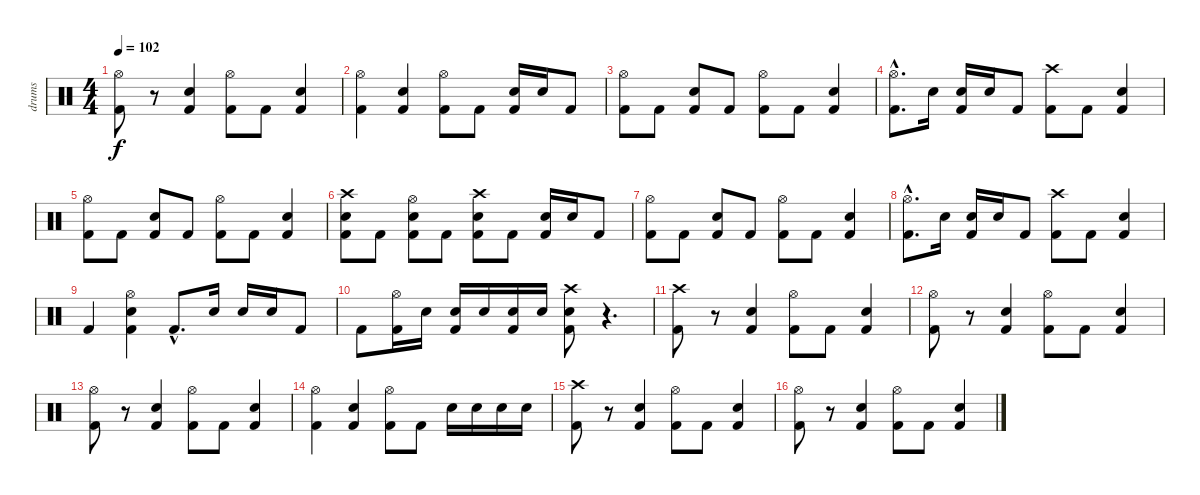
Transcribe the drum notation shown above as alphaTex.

\track ("drums" "drums") {instrument percussion}
\staff {score}
\articulation defaults
\ts (4 4)
\tempo 102
\clef neutral
\ks c
("Hi-Hat (open)" "Kick (hit) 2").8{dy f} r.8 ("Electric Snare (hit)" "Kick (hit) 2").4 ("Hi-Hat (open)" "Kick (hit) 2").8 "Kick (hit) 2".8 ("Electric Snare (hit)" "Kick (hit) 2").4 |
("Hi-Hat (open)" "Kick (hit) 2").4 ("Electric Snare (hit)" "Kick (hit) 2").4 ("Hi-Hat (open)" "Kick (hit) 2").8 "Kick (hit) 2".8 ("Electric Snare (hit)" "Kick (hit) 2").16 "Electric Snare (hit)".16 "Kick (hit) 2".8 |
("Hi-Hat (open)" "Kick (hit) 2").8 "Kick (hit) 2".8 ("Electric Snare (hit)" "Kick (hit) 2").8 "Kick (hit) 2".8 ("Hi-Hat (open)" "Kick (hit) 2").8 "Kick (hit) 2".8 ("Electric Snare (hit)" "Kick (hit) 2").4 |
("Hi-Hat (open)"{hac} "Kick (hit) 2"{hac}).8{d} "Electric Snare (hit)".16 ("Electric Snare (hit)" "Kick (hit) 2").16 "Electric Snare (hit)".16 "Kick (hit) 2".8 ("Crash high (hit)" "Kick (hit) 2").8 "Kick (hit) 2".8 ("Electric Snare (hit)" "Kick (hit) 2").4 |
("Hi-Hat (open)" "Kick (hit) 2").8 "Kick (hit) 2".8 ("Electric Snare (hit)" "Kick (hit) 2").8 "Kick (hit) 2".8 ("Hi-Hat (open)" "Kick (hit) 2").8 "Kick (hit) 2".8 ("Electric Snare (hit)" "Kick (hit) 2").4 |
("Crash high (hit)" "Electric Snare (hit)" "Kick (hit) 2").8 "Kick (hit) 2".8 ("Hi-Hat (open)" "Electric Snare (hit)" "Kick (hit) 2").8 "Kick (hit) 2".8 ("Crash high (hit)" "Electric Snare (hit)" "Kick (hit) 2").8 "Kick (hit) 2".8 ("Electric Snare (hit)" "Kick (hit) 2").16 "Electric Snare (hit)".16 "Kick (hit) 2".8 |
("Hi-Hat (open)" "Kick (hit) 2").8 "Kick (hit) 2".8 ("Electric Snare (hit)" "Kick (hit) 2").8 "Kick (hit) 2".8 ("Hi-Hat (open)" "Kick (hit) 2").8 "Kick (hit) 2".8 ("Electric Snare (hit)" "Kick (hit) 2").4 |
("Hi-Hat (open)"{hac} "Kick (hit) 2"{hac}).8{d} "Electric Snare (hit)".16 ("Electric Snare (hit)" "Kick (hit) 2").16 "Electric Snare (hit)".16 "Kick (hit) 2".8 ("Crash high (hit)" "Kick (hit) 2").8 "Kick (hit) 2".8 ("Electric Snare (hit)" "Kick (hit) 2").4 |
"Kick (hit) 2".4 ("Hi-Hat (open)" "Electric Snare (hit)" "Kick (hit) 2").4 "Kick (hit) 2"{hac}.8{d} "Electric Snare (hit)".16 "Electric Snare (hit)".16 "Electric Snare (hit)".16 "Kick (hit) 2".8 |
"Kick (hit) 2".8 ("Hi-Hat (open)" "Kick (hit) 2").16 "Electric Snare (hit)".16 ("Electric Snare (hit)" "Kick (hit) 2").16 "Electric Snare (hit)".16 ("Electric Snare (hit)" "Kick (hit) 2").16 "Electric Snare (hit)".16 ("Crash high (hit)" "Electric Snare (hit)" "Kick (hit) 2").8 r.4{d} |
("Crash high (hit)" "Kick (hit) 2").8 r.8 ("Electric Snare (hit)" "Kick (hit) 2").4 ("Hi-Hat (open)" "Kick (hit) 2").8 "Kick (hit) 2".8 ("Electric Snare (hit)" "Kick (hit) 2").4 |
("Hi-Hat (open)" "Kick (hit) 2").8 r.8 ("Electric Snare (hit)" "Kick (hit) 2").4 ("Hi-Hat (open)" "Kick (hit) 2").8 "Kick (hit) 2".8 ("Electric Snare (hit)" "Kick (hit) 2").4 |
("Hi-Hat (open)" "Kick (hit) 2").8 r.8 ("Electric Snare (hit)" "Kick (hit) 2").4 ("Hi-Hat (open)" "Kick (hit) 2").8 "Kick (hit) 2".8 ("Electric Snare (hit)" "Kick (hit) 2").4 |
("Hi-Hat (open)" "Kick (hit) 2").4 ("Electric Snare (hit)" "Kick (hit) 2").4 ("Hi-Hat (open)" "Kick (hit) 2").8 "Kick (hit) 2".8 "Electric Snare (hit)".16 "Electric Snare (hit)".16 "Snare (hit) 2".16 "Snare (hit) 2".16 |
("Crash high (hit)" "Kick (hit) 2").8 r.8 ("Electric Snare (hit)" "Kick (hit) 2").4 ("Hi-Hat (open)" "Kick (hit) 2").8 "Kick (hit) 2".8 ("Electric Snare (hit)" "Kick (hit) 2").4 |
("Hi-Hat (open)" "Kick (hit) 2").8 r.8 ("Electric Snare (hit)" "Kick (hit) 2").4 ("Hi-Hat (open)" "Kick (hit) 2").8 "Kick (hit) 2".8 ("Electric Snare (hit)" "Kick (hit) 2").4
